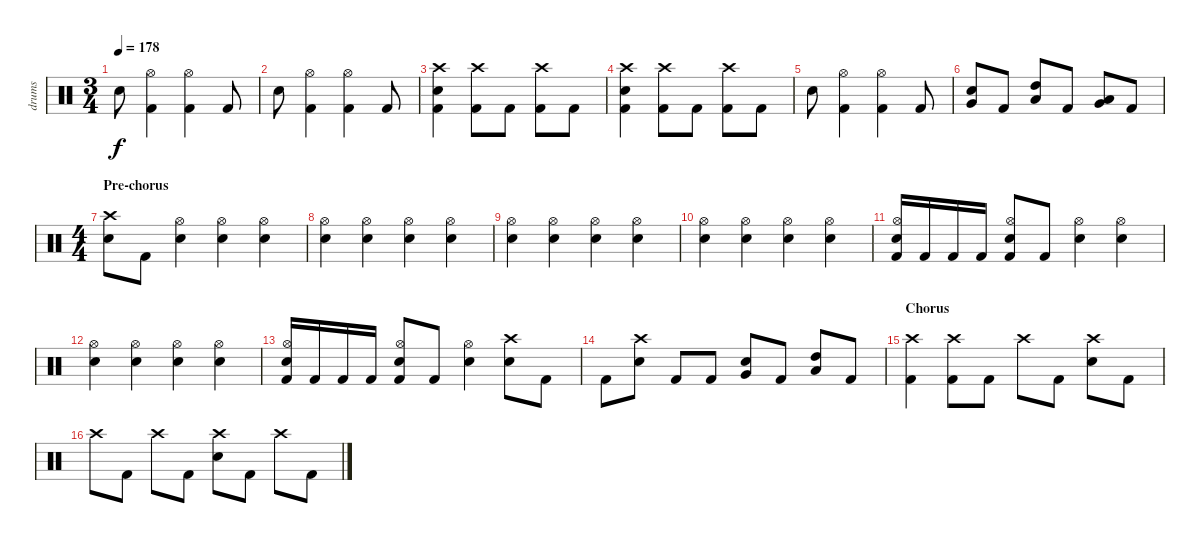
\track ("drums" "drums") {instrument percussion}
\staff {score}
\articulation defaults
\ts (3 4)
\tempo 178
\clef neutral
\ks c "Electric Snare (hit)".8{dy f}
("Hi-Hat (open)" "Kick (hit) 2").4 ("Hi-Hat (open)" "Kick (hit) 2").4 "Kick (hit) 2".8 |
"Electric Snare (hit)".8 ("Hi-Hat (open)" "Kick (hit) 2").4 ("Hi-Hat (open)" "Kick (hit) 2").4 "Kick (hit) 2".8 |
("Crash high (hit)" "Electric Snare (hit)" "Kick (hit) 2").4 ("Crash high (hit)" "Kick (hit) 2").8 "Kick (hit) 2".8 ("Crash high (hit)" "Kick (hit) 2").8 "Kick (hit) 2".8 |
("Crash high (hit)" "Electric Snare (hit)" "Kick (hit) 2").4 ("Crash high (hit)" "Kick (hit) 2").8 "Kick (hit) 2".8 ("Crash high (hit)" "Kick (hit) 2").8 "Kick (hit) 2".8 |
"Electric Snare (hit)".8 ("Hi-Hat (open)" "Kick (hit) 2").4 ("Hi-Hat (open)" "Kick (hit) 2").4 "Kick (hit) 2".8 |
("Very Low Tom (hit)" "Electric Snare (hit)").8 "Kick (hit) 2".8 ("High Tom (hit)" "Low Tom (hit)").8 "Kick (hit) 2".8 ("Very Low Tom (hit)" "Low Tom (hit)").8 "Kick (hit) 2".8 |
\ts (4 4)
\section ("" "Pre-chorus")
("Crash high (hit)" "Electric Snare (hit)").8 "Kick (hit) 2".8 ("Hi-Hat (open)" "Electric Snare (hit)").4 ("Hi-Hat (open)" "Electric Snare (hit)").4 ("Hi-Hat (open)" "Electric Snare (hit)").4 |
("Hi-Hat (open)" "Electric Snare (hit)").4 ("Hi-Hat (open)" "Electric Snare (hit)").4 ("Hi-Hat (open)" "Electric Snare (hit)").4 ("Hi-Hat (open)" "Electric Snare (hit)").4 |
("Hi-Hat (open)" "Electric Snare (hit)").4 ("Hi-Hat (open)" "Electric Snare (hit)").4 ("Hi-Hat (open)" "Electric Snare (hit)").4 ("Hi-Hat (open)" "Electric Snare (hit)").4 |
("Hi-Hat (open)" "Electric Snare (hit)").4 ("Hi-Hat (open)" "Electric Snare (hit)").4 ("Hi-Hat (open)" "Electric Snare (hit)").4 ("Hi-Hat (open)" "Electric Snare (hit)").4 |
("Hi-Hat (open)" "Electric Snare (hit)" "Kick (hit) 2").16 "Kick (hit) 2".16 "Kick (hit) 2".16 "Kick (hit) 2".16 ("Hi-Hat (open)" "Electric Snare (hit)" "Kick (hit) 2").8 "Kick (hit) 2".8 ("Hi-Hat (open)" "Electric Snare (hit)").4 ("Hi-Hat (open)" "Electric Snare (hit)").4 |
("Hi-Hat (open)" "Electric Snare (hit)").4 ("Hi-Hat (open)" "Electric Snare (hit)").4 ("Hi-Hat (open)" "Electric Snare (hit)").4 ("Hi-Hat (open)" "Electric Snare (hit)").4 |
("Hi-Hat (open)" "Electric Snare (hit)" "Kick (hit) 2").16 "Kick (hit) 2".16 "Kick (hit) 2".16 "Kick (hit) 2".16 ("Hi-Hat (open)" "Electric Snare (hit)" "Kick (hit) 2").8 "Kick (hit) 2".8 ("Hi-Hat (open)" "Electric Snare (hit)").4 ("Crash high (hit)" "Electric Snare (hit)").8 "Kick (hit) 2".8 |
"Kick (hit) 2".8 ("Crash high (hit)" "Electric Snare (hit)").8 "Kick (hit) 2".8 "Kick (hit) 2".8 ("Very Low Tom (hit)" "Electric Snare (hit)").8 "Kick (hit) 2".8 ("Low Tom (hit)" "High Tom (hit)").8 "Kick (hit) 2".8 |
\section ("" "Chorus")
("Crash high (hit)" "Kick (hit) 2").4 ("Crash high (hit)" "Kick (hit) 2").8 "Kick (hit) 2".8 "Crash high (hit)".8 "Kick (hit) 2".8 ("Crash high (hit)" "Electric Snare (hit)").8 "Kick (hit) 2".8 |
"Crash high (hit)".8 "Kick (hit) 2".8 "Crash high (hit)".8 "Kick (hit) 2".8 ("Crash high (hit)" "Electric Snare (hit)").8 "Kick (hit) 2".8 "Crash high (hit)".8 "Kick (hit) 2".8
